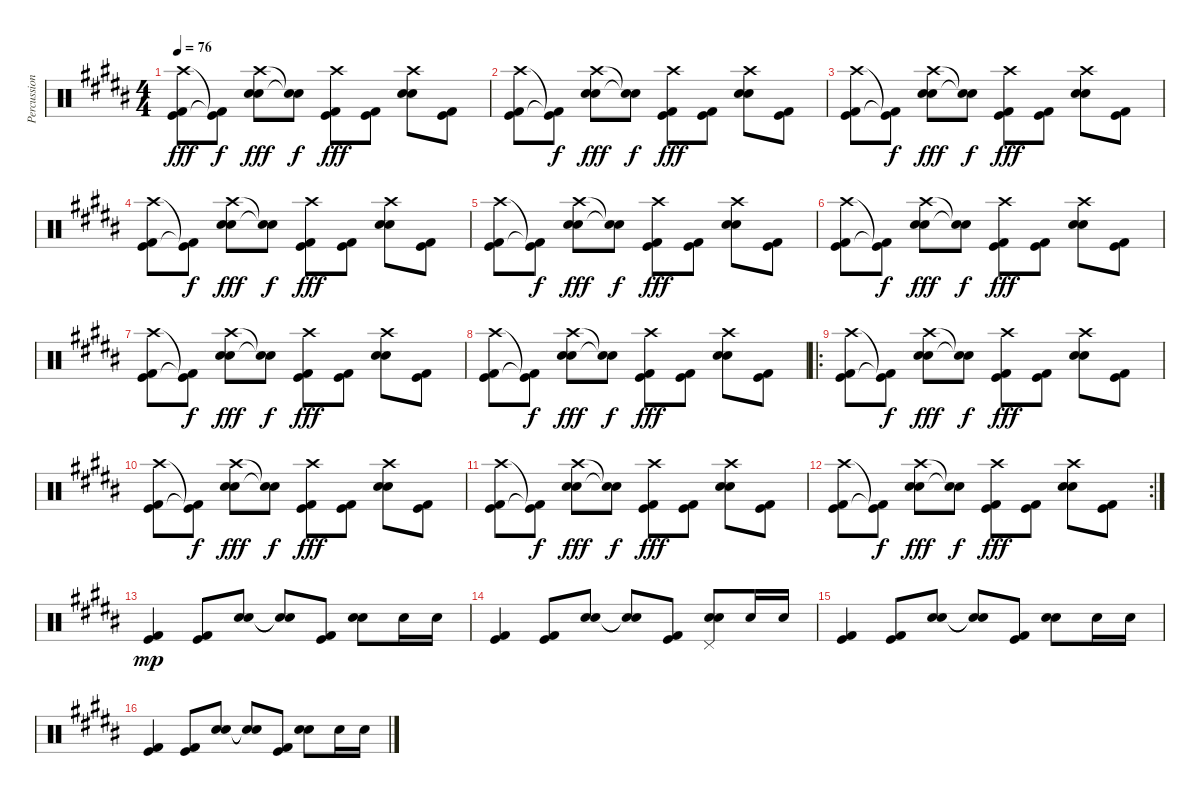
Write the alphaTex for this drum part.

\track ("Percussion" "Percussion") {instrument percussion}
\staff {score}
\articulation defaults
\ts (4 4)
\tempo 76
\clef neutral
\ks b
("Crash high (hit)" "Kick (hit)" "Kick (hit) 2").8{dy fff} ("Kick (hit)"{t} "Kick (hit) 2"{t}).8{dy f} ("Crash high (hit)" "Snare (hit) 2" "Snare (hit) 2").8{dy fff} ("Snare (hit) 2"{t} "Snare (hit) 2"{t}).8{dy f} ("Crash high (hit)" "Kick (hit)" "Kick (hit) 2").8{dy fff} ("Kick (hit)" "Kick (hit) 2").8 ("Crash high (hit)" "Snare (hit) 2" "Snare (hit) 2").8 ("Kick (hit)" "Kick (hit) 2").8 |
("Crash high (hit)" "Kick (hit)" "Kick (hit) 2").8 ("Kick (hit)"{t} "Kick (hit) 2"{t}).8{dy f} ("Crash high (hit)" "Snare (hit) 2" "Snare (hit) 2").8{dy fff} ("Snare (hit) 2"{t} "Snare (hit) 2"{t}).8{dy f} ("Crash high (hit)" "Kick (hit)" "Kick (hit) 2").8{dy fff} ("Kick (hit)" "Kick (hit) 2").8 ("Crash high (hit)" "Snare (hit) 2" "Snare (hit) 2").8 ("Kick (hit)" "Kick (hit) 2").8 |
("Crash high (hit)" "Kick (hit)" "Kick (hit) 2").8 ("Kick (hit)"{t} "Kick (hit) 2"{t}).8{dy f} ("Crash high (hit)" "Snare (hit) 2" "Snare (hit) 2").8{dy fff} ("Snare (hit) 2"{t} "Snare (hit) 2"{t}).8{dy f} ("Crash high (hit)" "Kick (hit)" "Kick (hit) 2").8{dy fff} ("Kick (hit)" "Kick (hit) 2").8 ("Crash high (hit)" "Snare (hit) 2" "Snare (hit) 2").8 ("Kick (hit)" "Kick (hit) 2").8 |
("Crash high (hit)" "Kick (hit)" "Kick (hit) 2").8 ("Kick (hit)"{t} "Kick (hit) 2"{t}).8{dy f} ("Crash high (hit)" "Snare (hit) 2" "Snare (hit) 2").8{dy fff} ("Snare (hit) 2"{t} "Snare (hit) 2"{t}).8{dy f} ("Crash high (hit)" "Kick (hit)" "Kick (hit) 2").8{dy fff} ("Kick (hit)" "Kick (hit) 2").8 ("Crash high (hit)" "Snare (hit) 2" "Snare (hit) 2").8 ("Kick (hit)" "Kick (hit) 2").8 |
("Crash high (hit)" "Kick (hit)" "Kick (hit) 2").8 ("Kick (hit)"{t} "Kick (hit) 2"{t}).8{dy f} ("Crash high (hit)" "Snare (hit) 2" "Snare (hit) 2").8{dy fff} ("Snare (hit) 2"{t} "Snare (hit) 2"{t}).8{dy f} ("Crash high (hit)" "Kick (hit)" "Kick (hit) 2").8{dy fff} ("Kick (hit)" "Kick (hit) 2").8 ("Crash high (hit)" "Snare (hit) 2" "Snare (hit) 2").8 ("Kick (hit)" "Kick (hit) 2").8 |
("Crash high (hit)" "Kick (hit)" "Kick (hit) 2").8 ("Kick (hit)"{t} "Kick (hit) 2"{t}).8{dy f} ("Crash high (hit)" "Snare (hit) 2" "Snare (hit) 2").8{dy fff} ("Snare (hit) 2"{t} "Snare (hit) 2"{t}).8{dy f} ("Crash high (hit)" "Kick (hit)" "Kick (hit) 2").8{dy fff} ("Kick (hit)" "Kick (hit) 2").8 ("Crash high (hit)" "Snare (hit) 2" "Snare (hit) 2").8 ("Kick (hit)" "Kick (hit) 2").8 |
("Crash high (hit)" "Kick (hit)" "Kick (hit) 2").8 ("Kick (hit)"{t} "Kick (hit) 2"{t}).8{dy f} ("Crash high (hit)" "Snare (hit) 2" "Snare (hit) 2").8{dy fff} ("Snare (hit) 2"{t} "Snare (hit) 2"{t}).8{dy f} ("Crash high (hit)" "Kick (hit)" "Kick (hit) 2").8{dy fff} ("Kick (hit)" "Kick (hit) 2").8 ("Crash high (hit)" "Snare (hit) 2" "Snare (hit) 2").8 ("Kick (hit)" "Kick (hit) 2").8 |
("Crash high (hit)" "Kick (hit)" "Kick (hit) 2").8 ("Kick (hit)"{t} "Kick (hit) 2"{t}).8{dy f} ("Crash high (hit)" "Snare (hit) 2" "Snare (hit) 2").8{dy fff} ("Snare (hit) 2"{t} "Snare (hit) 2"{t}).8{dy f} ("Crash high (hit)" "Kick (hit)" "Kick (hit) 2").8{dy fff} ("Kick (hit)" "Kick (hit) 2").8 ("Crash high (hit)" "Snare (hit) 2" "Snare (hit) 2").8 ("Kick (hit)" "Kick (hit) 2").8 |
\ro
("Crash high (hit)" "Kick (hit)" "Kick (hit) 2").8 ("Kick (hit)"{t} "Kick (hit) 2"{t}).8{dy f} ("Crash high (hit)" "Snare (hit) 2" "Snare (hit) 2").8{dy fff} ("Snare (hit) 2"{t} "Snare (hit) 2"{t}).8{dy f} ("Crash high (hit)" "Kick (hit)" "Kick (hit) 2").8{dy fff} ("Kick (hit)" "Kick (hit) 2").8 ("Crash high (hit)" "Snare (hit) 2" "Snare (hit) 2").8 ("Kick (hit)" "Kick (hit) 2").8 |
("Crash high (hit)" "Kick (hit)" "Kick (hit) 2").8 ("Kick (hit)"{t} "Kick (hit) 2"{t}).8{dy f} ("Crash high (hit)" "Snare (hit) 2" "Snare (hit) 2").8{dy fff} ("Snare (hit) 2"{t} "Snare (hit) 2"{t}).8{dy f} ("Crash high (hit)" "Kick (hit)" "Kick (hit) 2").8{dy fff} ("Kick (hit)" "Kick (hit) 2").8 ("Crash high (hit)" "Snare (hit) 2" "Snare (hit) 2").8 ("Kick (hit)" "Kick (hit) 2").8 |
("Crash high (hit)" "Kick (hit)" "Kick (hit) 2").8 ("Kick (hit)"{t} "Kick (hit) 2"{t}).8{dy f} ("Crash high (hit)" "Snare (hit) 2" "Snare (hit) 2").8{dy fff} ("Snare (hit) 2"{t} "Snare (hit) 2"{t}).8{dy f} ("Crash high (hit)" "Kick (hit)" "Kick (hit) 2").8{dy fff} ("Kick (hit)" "Kick (hit) 2").8 ("Crash high (hit)" "Snare (hit) 2" "Snare (hit) 2").8 ("Kick (hit)" "Kick (hit) 2").8 |
\rc 2
("Crash high (hit)" "Kick (hit)" "Kick (hit) 2").8 ("Kick (hit)"{t} "Kick (hit) 2"{t}).8{dy f} ("Crash high (hit)" "Snare (hit) 2" "Snare (hit) 2").8{dy fff} ("Snare (hit) 2"{t} "Snare (hit) 2"{t}).8{dy f} ("Crash high (hit)" "Kick (hit)" "Kick (hit) 2").8{dy fff} ("Kick (hit)" "Kick (hit) 2").8 ("Crash high (hit)" "Snare (hit) 2" "Snare (hit) 2").8 ("Kick (hit)" "Kick (hit) 2").8 |
("Kick (hit)" "Kick (hit) 2").4{dy mp} ("Kick (hit)" "Kick (hit) 2").8 ("Snare (hit) 2" "Snare (hit) 2").8 ("Snare (hit) 2"{t} "Snare (hit) 2"{t}).8 ("Kick (hit)" "Kick (hit) 2").8 ("Snare (hit) 2" "Snare (hit) 2").8 "Snare (hit) 2".16 "Snare (hit) 2".16 |
("Kick (hit)" "Kick (hit) 2").4 ("Kick (hit)" "Kick (hit) 2").8 ("Snare (hit) 2" "Snare (hit) 2").8 ("Snare (hit) 2"{t} "Snare (hit) 2"{t}).8 ("Kick (hit)" "Kick (hit) 2").8 ("Pedal Hi-Hat (hit)" "Snare (hit) 2" "Snare (hit) 2").8 "Snare (hit) 2".16 "Snare (hit) 2".16 |
("Kick (hit)" "Kick (hit) 2").4 ("Kick (hit)" "Kick (hit) 2").8 ("Snare (hit) 2" "Snare (hit) 2").8 ("Snare (hit) 2"{t} "Snare (hit) 2"{t}).8 ("Kick (hit)" "Kick (hit) 2").8 ("Snare (hit) 2" "Snare (hit) 2").8 "Snare (hit) 2".16 "Snare (hit) 2".16 |
("Kick (hit)" "Kick (hit) 2").4 ("Kick (hit)" "Kick (hit) 2").8 ("Snare (hit) 2" "Snare (hit) 2").8 ("Snare (hit) 2"{t} "Snare (hit) 2"{t}).8 ("Kick (hit)" "Kick (hit) 2").8 ("Snare (hit) 2" "Snare (hit) 2").8 "Snare (hit) 2".16 "Snare (hit) 2".16
